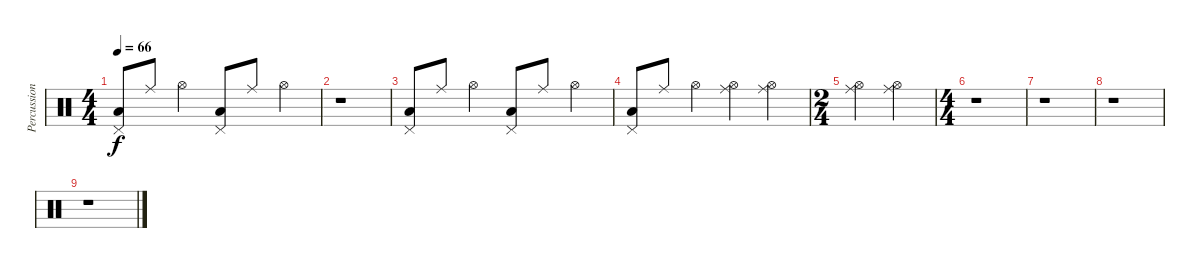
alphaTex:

\track ("Percussions" "Percussion") {instrument percussion}
\staff {score}
\articulation defaults
\ts (4 4)
\tempo 66
\clef neutral
\ks c
("Pedal Hi-Hat (hit)" "Low Tom (hit)").8{dy f} "Ride (middle)".8 "Hi-Hat (open)".4 ("Pedal Hi-Hat (hit)" "Low Tom (hit)").8 "Ride (middle)".8 "Hi-Hat (open)".4 |
r.1 |
("Pedal Hi-Hat (hit)" "Low Tom (hit)").8 "Ride (middle)".8 "Hi-Hat (open)".4 ("Pedal Hi-Hat (hit)" "Low Tom (hit)").8 "Ride (middle)".8 "Hi-Hat (open)".4 |
("Pedal Hi-Hat (hit)" "Low Tom (hit)").8 "Ride (middle)".8 "Hi-Hat (open)".4 ("Ride (middle)" "Hi-Hat (open)").4 ("Ride (middle)" "Hi-Hat (open)").4 |
\ts (2 4)
("Ride (middle)" "Hi-Hat (open)").4 ("Ride (middle)" "Hi-Hat (open)").4 |
\ts (4 4)
r.1 |
r.1 |
r.1 |
r.1
